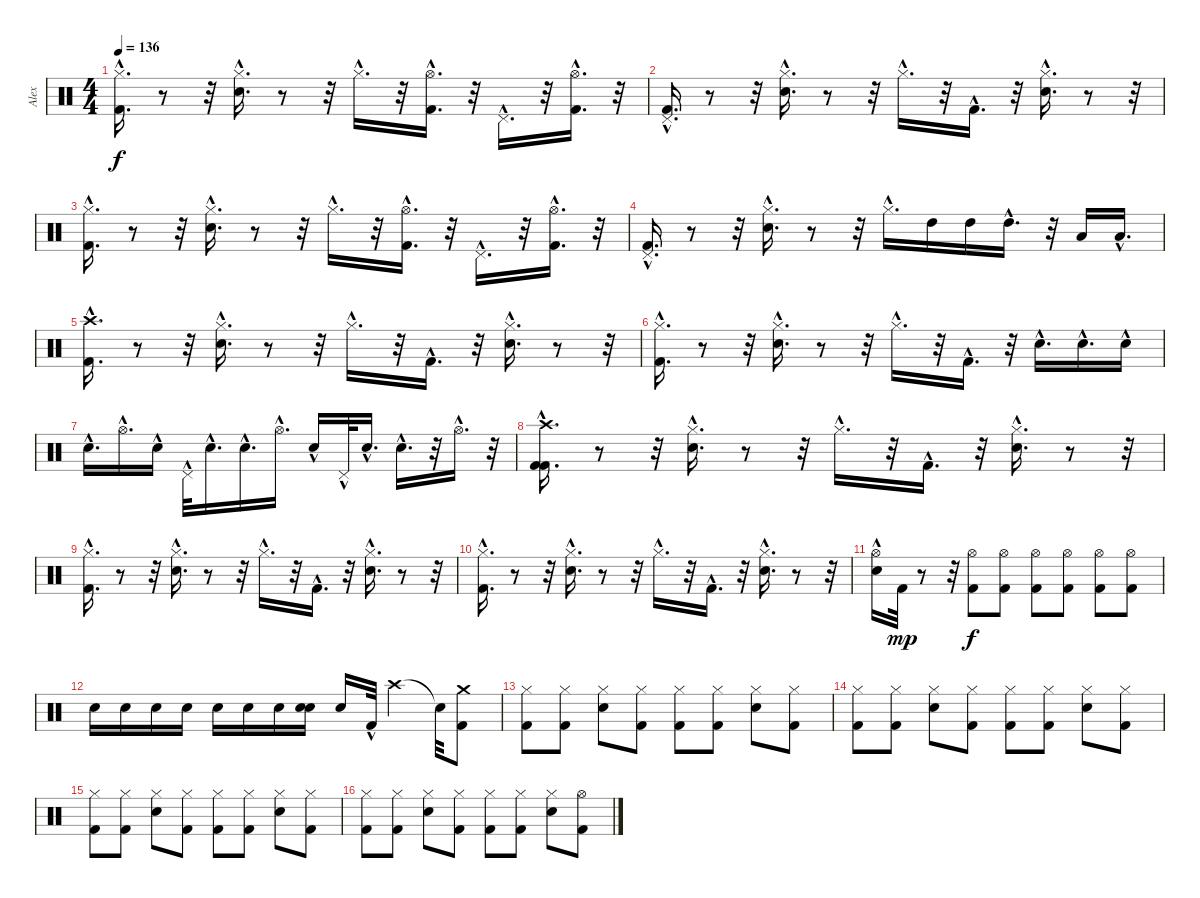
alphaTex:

\track ("Alex" "Alex") {instrument percussion}
\staff {score}
\articulation defaults
\ts (4 4)
\tempo 136
\clef neutral
\ks c
("Hi-Hat (closed)"{hac} "Kick (hit) 2"{hac}).16{d dy f} r.8 r.32 ("Hi-Hat (closed)"{hac} "Snare (hit) 2"{hac}).16{d} r.8 r.32 "Hi-Hat (closed)"{hac}.16{d} r.32 ("Kick (hit) 2"{hac} "Hi-Hat (open)"{hac}).16{d} r.32 "Pedal Hi-Hat (hit)"{hac}.16{d} r.32 ("Hi-Hat (open)"{hac} "Kick (hit) 2"{hac}).16{d} r.32 |
("Kick (hit) 2"{hac} "Pedal Hi-Hat (hit)"{hac}).16{d} r.8 r.32 ("Hi-Hat (closed)"{hac} "Snare (hit) 2"{hac}).16{d} r.8 r.32 "Hi-Hat (closed)"{hac}.16{d} r.32 "Kick (hit) 2"{hac}.16{d} r.32 ("Snare (hit) 2"{hac} "Hi-Hat (closed)"{hac}).16{d} r.8 r.32 |
("Hi-Hat (closed)"{hac} "Kick (hit) 2"{hac}).16{d} r.8 r.32 ("Snare (hit) 2"{hac} "Hi-Hat (closed)"{hac}).16{d} r.8 r.32 "Hi-Hat (closed)"{hac}.16{d} r.32 ("Kick (hit) 2"{hac} "Hi-Hat (open)"{hac}).16{d} r.32 "Pedal Hi-Hat (hit)"{hac}.16{d} r.32 ("Hi-Hat (open)"{hac} "Kick (hit) 2"{hac}).16{d} r.32 |
("Kick (hit) 2"{hac} "Pedal Hi-Hat (hit)"{hac}).16{d} r.8 r.32 ("Hi-Hat (closed)"{hac} "Snare (hit) 2"{hac}).16{d} r.8 r.32 "Hi-Hat (closed)"{hac}.16{d} "High Tom (hit)".16 "High Tom (hit)".16 "High Tom (hit)"{hac}.16{d} r.32 "Low Tom (hit)".16 "Low Tom (hit)"{hac}.16{d} |
("Crash high (hit)"{hac} "Kick (hit) 2"{hac}).16{d} r.8 r.32 ("Snare (hit) 2"{hac} "Hi-Hat (closed)"{hac}).16{d} r.8 r.32 "Hi-Hat (closed)"{hac}.16{d} r.32 "Kick (hit) 2"{hac}.16{d} r.32 ("Hi-Hat (closed)"{hac} "Snare (hit) 2"{hac}).16{d} r.8 r.32 |
("Hi-Hat (closed)"{hac} "Kick (hit) 2"{hac}).16{d} r.8 r.32 ("Snare (hit) 2"{hac} "Hi-Hat (closed)"{hac}).16{d} r.8 r.32 "Hi-Hat (closed)"{hac}.16{d} r.32 "Kick (hit) 2"{hac}.16{d} r.32 "Snare (hit) 2"{hac}.16{d} "Snare (hit) 2"{hac}.16{d} "Snare (hit) 2"{hac}.16 |
"Snare (hit) 2"{hac}.16{d} "Hi-Hat (open)"{hac}.16{d} "Snare (hit) 2"{hac}.16 "Pedal Hi-Hat (hit)"{hac}.32 "Snare (hit) 2"{hac}.16{d} "Snare (hit) 2"{hac}.16{d} "Hi-Hat (open)"{hac}.16{d} "Snare (hit) 2"{hac}.16 "Pedal Hi-Hat (hit)"{hac}.32 "Snare (hit) 2"{hac}.16{d} "Snare (hit) 2"{hac}.16{d} r.32 "Hi-Hat (open)"{hac}.16{d} r.32 |
("Crash high (hit)"{hac} "Kick (hit) 2"{hac} "Kick (hit) 2"{hac}).16{d} r.8 r.32 ("Snare (hit) 2"{hac} "Hi-Hat (closed)"{hac}).16{d} r.8 r.32 "Hi-Hat (closed)"{hac}.16{d} r.32 "Kick (hit) 2"{hac}.16{d} r.32 ("Hi-Hat (closed)"{hac} "Snare (hit) 2"{hac}).16{d} r.8 r.32 |
("Kick (hit) 2"{hac} "Hi-Hat (closed)"{hac}).16{d} r.8 r.32 ("Hi-Hat (closed)"{hac} "Snare (hit) 2"{hac}).16{d} r.8 r.32 "Hi-Hat (closed)"{hac}.16{d} r.32 "Kick (hit) 2"{hac}.16{d} r.32 ("Hi-Hat (closed)"{hac} "Snare (hit) 2"{hac}).16{d} r.8 r.32 |
("Hi-Hat (closed)"{hac} "Kick (hit) 2"{hac}).16{d} r.8 r.32 ("Hi-Hat (closed)"{hac} "Snare (hit) 2"{hac}).16{d} r.8 r.32 "Hi-Hat (closed)"{hac}.16{d} r.32 "Kick (hit) 2"{hac}.16{d} r.32 ("Hi-Hat (closed)"{hac} "Snare (hit) 2").16{d} r.8 r.32 |
("Snare (hit) 2"{hac} "Hi-Hat (open)"{hac}).16 "Kick (hit) 2".32{dy mp} r.8 r.32 ("Hi-Hat (open)" "Kick (hit) 2").8{dy f} ("Hi-Hat (open)" "Kick (hit) 2").8 ("Hi-Hat (open)" "Kick (hit) 2").8 ("Kick (hit) 2" "Hi-Hat (open)").8 ("Kick (hit) 2" "Hi-Hat (open)").8 ("Kick (hit) 2" "Hi-Hat (open)").8 |
"Snare (hit) 2".16 "Snare (hit) 2".16 "Snare (hit) 2".16 "Snare (hit) 2".16 "Snare (hit) 2".16 "Snare (hit) 2".16 "Snare (hit) 2".16 ("Snare (hit) 2" "Snare (hit) 2").16 "Snare (hit) 2".16 "Kick (hit) 2"{hac}.32 "Crash high (hit)".4 "Snare (hit)"{t}.32 ("Crash medium (hit)" "Kick (hit) 2").8 |
("Kick (hit) 2" "Hi-Hat (closed)").8 ("Hi-Hat (closed)" "Kick (hit) 2").8 ("Snare (hit) 2" "Hi-Hat (closed)").8 ("Hi-Hat (closed)" "Kick (hit) 2").8 ("Hi-Hat (closed)" "Kick (hit) 2").8 ("Hi-Hat (closed)" "Kick (hit) 2").8 ("Snare (hit) 2" "Hi-Hat (closed)").8 ("Kick (hit) 2" "Hi-Hat (closed)").8 |
("Kick (hit) 2" "Hi-Hat (closed)").8 ("Kick (hit) 2" "Hi-Hat (closed)").8 ("Snare (hit) 2" "Hi-Hat (closed)").8 ("Hi-Hat (closed)" "Kick (hit) 2").8 ("Kick (hit) 2" "Hi-Hat (closed)").8 ("Hi-Hat (closed)" "Kick (hit) 2").8 ("Snare (hit) 2" "Hi-Hat (closed)").8 ("Kick (hit) 2" "Hi-Hat (closed)").8 |
("Kick (hit) 2" "Hi-Hat (closed)").8 ("Kick (hit) 2" "Hi-Hat (closed)").8 ("Snare (hit) 2" "Hi-Hat (closed)").8 ("Hi-Hat (closed)" "Kick (hit) 2").8 ("Kick (hit) 2" "Hi-Hat (closed)").8 ("Hi-Hat (closed)" "Kick (hit) 2").8 ("Snare (hit) 2" "Hi-Hat (closed)").8 ("Hi-Hat (closed)" "Kick (hit) 2").8 |
("Kick (hit) 2" "Hi-Hat (closed)").8 ("Kick (hit) 2" "Hi-Hat (closed)").8 ("Snare (hit) 2" "Hi-Hat (closed)").8 ("Hi-Hat (closed)" "Kick (hit) 2").8 ("Hi-Hat (closed)" "Kick (hit) 2").8 ("Hi-Hat (closed)" "Kick (hit) 2").8 ("Snare (hit) 2" "Hi-Hat (closed)").8 ("Kick (hit) 2" "Hi-Hat (open)").8
